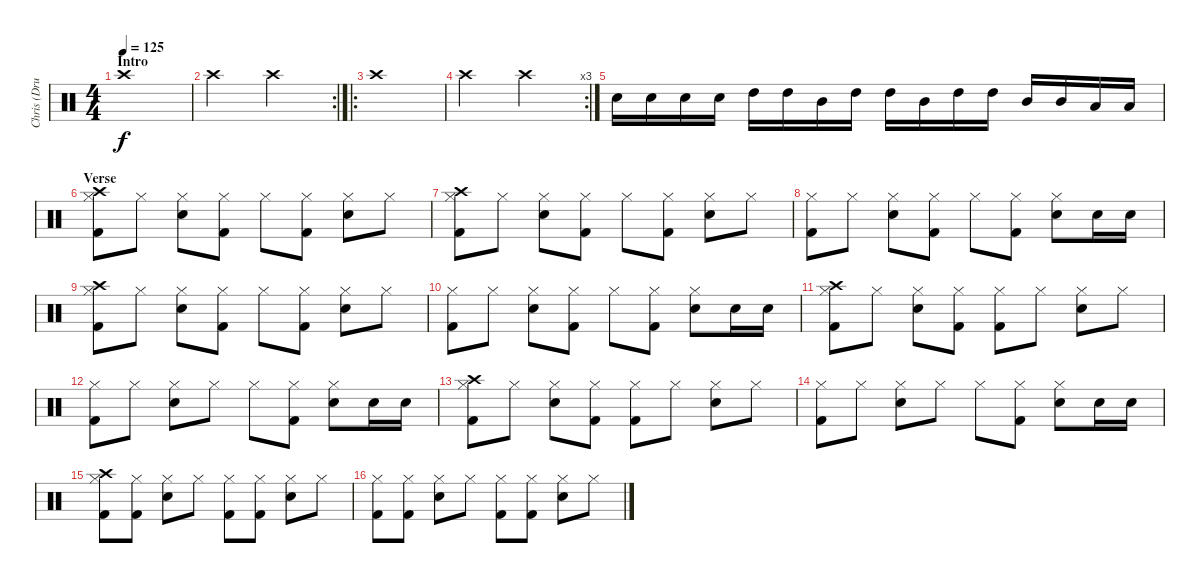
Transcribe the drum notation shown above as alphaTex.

\track ("Chris (Drums)" "Chris (Dru") {instrument percussion}
\staff {score}
\articulation defaults
\ts (4 4)
\section ("" "Intro")
\tempo 125
\clef neutral
\ks c "Crash high (hit)".1{dy f}
|
\rc 2 "Crash high (hit)".2 "Crash high (hit)".2
|
\ro "Crash high (hit)".1
|
\rc 3 "Crash high (hit)".2 "Crash high (hit)".2
|
"Snare (hit) 2".16 "Snare (hit) 2".16 "Snare (hit) 2".16 "Snare (hit) 2".16 "High Tom (hit)".16 "High Tom (hit)".16 "Mid Tom (hit)".16 "High Tom (hit)".16 "High Tom (hit)".16 "Mid Tom (hit)".16 "High Tom (hit)".16 "High Tom (hit)".16 "Mid Tom (hit)".16 "Mid Tom (hit)".16 "Low Tom (hit)".16 "Low Tom (hit)".16 |
\section ("" "Verse")
("Crash high (hit)" "Hi-Hat (closed)" "Kick (hit) 2").8 "Hi-Hat (closed)".8 ("Hi-Hat (closed)" "Snare (hit) 2").8 ("Hi-Hat (closed)" "Kick (hit) 2").8 "Hi-Hat (closed)".8 ("Hi-Hat (closed)" "Kick (hit) 2").8 ("Hi-Hat (closed)" "Snare (hit) 2").8 "Hi-Hat (closed)".8 |
("Crash high (hit)" "Hi-Hat (closed)" "Kick (hit) 2").8 "Hi-Hat (closed)".8 ("Hi-Hat (closed)" "Snare (hit) 2").8 ("Hi-Hat (closed)" "Kick (hit) 2").8 "Hi-Hat (closed)".8 ("Hi-Hat (closed)" "Kick (hit) 2").8 ("Hi-Hat (closed)" "Snare (hit) 2").8 "Hi-Hat (closed)".8 |
("Hi-Hat (closed)" "Kick (hit) 2").8 "Hi-Hat (closed)".8 ("Hi-Hat (closed)" "Snare (hit) 2").8 ("Hi-Hat (closed)" "Kick (hit) 2").8 "Hi-Hat (closed)".8 ("Hi-Hat (closed)" "Kick (hit) 2").8 ("Hi-Hat (closed)" "Snare (hit) 2").8 "Snare (hit) 2".16 "Snare (hit) 2".16 |
("Crash high (hit)" "Hi-Hat (closed)" "Kick (hit) 2").8 "Hi-Hat (closed)".8 ("Hi-Hat (closed)" "Snare (hit) 2").8 ("Hi-Hat (closed)" "Kick (hit) 2").8 "Hi-Hat (closed)".8 ("Hi-Hat (closed)" "Kick (hit) 2").8 ("Hi-Hat (closed)" "Snare (hit) 2").8 "Hi-Hat (closed)".8 |
("Hi-Hat (closed)" "Kick (hit) 2").8 "Hi-Hat (closed)".8 ("Hi-Hat (closed)" "Snare (hit) 2").8 ("Hi-Hat (closed)" "Kick (hit) 2").8 "Hi-Hat (closed)".8 ("Hi-Hat (closed)" "Kick (hit) 2").8 ("Hi-Hat (closed)" "Snare (hit) 2").8 "Snare (hit) 2".16 "Snare (hit) 2".16 |
("Crash high (hit)" "Hi-Hat (closed)" "Kick (hit) 2").8 "Hi-Hat (closed)".8 ("Hi-Hat (closed)" "Snare (hit) 2").8 ("Hi-Hat (closed)" "Kick (hit) 2").8 ("Hi-Hat (closed)" "Kick (hit) 2").8 "Hi-Hat (closed)".8 ("Hi-Hat (closed)" "Snare (hit) 2").8 "Hi-Hat (closed)".8 |
("Hi-Hat (closed)" "Kick (hit) 2").8 "Hi-Hat (closed)".8 ("Hi-Hat (closed)" "Snare (hit) 2").8 "Hi-Hat (closed)".8 "Hi-Hat (closed)".8 ("Hi-Hat (closed)" "Kick (hit) 2").8 ("Hi-Hat (closed)" "Snare (hit) 2").8 "Snare (hit) 2".16 "Snare (hit) 2".16 |
("Crash high (hit)" "Hi-Hat (closed)" "Kick (hit) 2").8 "Hi-Hat (closed)".8 ("Hi-Hat (closed)" "Snare (hit) 2").8 ("Hi-Hat (closed)" "Kick (hit) 2").8 ("Hi-Hat (closed)" "Kick (hit) 2").8 "Hi-Hat (closed)".8 ("Hi-Hat (closed)" "Snare (hit) 2").8 "Hi-Hat (closed)".8 |
("Hi-Hat (closed)" "Kick (hit) 2").8 "Hi-Hat (closed)".8 ("Hi-Hat (closed)" "Snare (hit) 2").8 "Hi-Hat (closed)".8 "Hi-Hat (closed)".8 ("Hi-Hat (closed)" "Kick (hit) 2").8 ("Hi-Hat (closed)" "Snare (hit) 2").8 "Snare (hit) 2".16 "Snare (hit) 2".16 |
("Crash high (hit)" "Hi-Hat (closed)" "Kick (hit) 2").8 ("Hi-Hat (closed)" "Kick (hit) 2").8 ("Hi-Hat (closed)" "Snare (hit) 2").8 "Hi-Hat (closed)".8 ("Hi-Hat (closed)" "Kick (hit) 2").8 ("Hi-Hat (closed)" "Kick (hit) 2").8 ("Hi-Hat (closed)" "Snare (hit) 2").8 "Hi-Hat (closed)".8 |
("Hi-Hat (closed)" "Kick (hit) 2").8 ("Hi-Hat (closed)" "Kick (hit) 2").8 ("Hi-Hat (closed)" "Snare (hit) 2").8 "Hi-Hat (closed)".8 ("Hi-Hat (closed)" "Kick (hit) 2").8 ("Hi-Hat (closed)" "Kick (hit) 2").8 ("Hi-Hat (closed)" "Snare (hit) 2").8 "Hi-Hat (closed)".8
